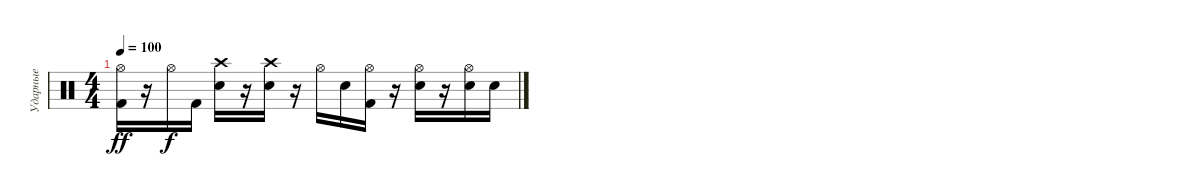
\track ("Ударные" "Ударные") {instrument percussion}
\staff {score}
\articulation defaults
\ts (4 4)
\tempo 100
\clef neutral
\ks c
("Hi-Hat (open)" "Kick (hit) 2").16{dy ff} r.16 "Hi-Hat (open)".16{dy f} "Kick (hit) 2".16 ("Crash high (hit)" "Electric Snare (hit)").16 r.16 ("Crash high (hit)" "Electric Snare (hit)").16 r.16 "Hi-Hat (open)".16 "Electric Snare (hit)".16 ("Hi-Hat (open)" "Kick (hit) 2").16 r.16 ("Hi-Hat (open)" "Electric Snare (hit)").16 r.16 ("Hi-Hat (open)" "Electric Snare (hit)").16 "Electric Snare (hit)".16
